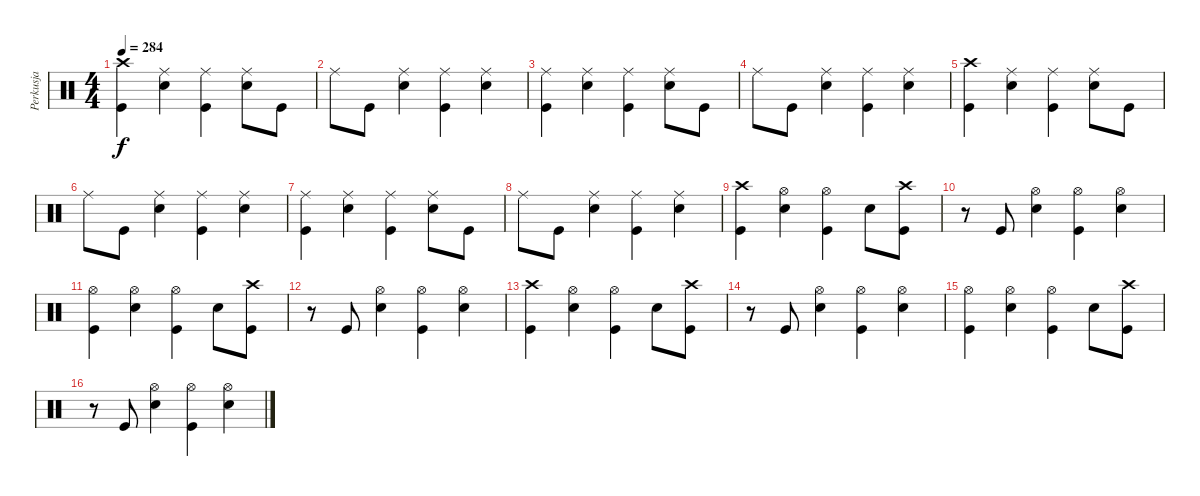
\track ("Perkusja" "Perkusja") {instrument percussion}
\staff {score}
\articulation defaults
\ts (4 4)
\tempo 284
\clef neutral
\ks c
("Kick (hit)" "Crash high (hit)").4{dy f} ("Ride (middle)" "Snare (hit) 2").4 ("Ride (middle)" "Kick (hit)").4 ("Ride (middle)" "Snare (hit) 2").8 "Kick (hit)".8 |
"Ride (middle)".8 "Kick (hit)".8 ("Ride (middle)" "Snare (hit) 2").4 ("Ride (middle)" "Kick (hit)").4 ("Ride (middle)" "Snare (hit) 2").4 |
("Ride (middle)" "Kick (hit)").4 ("Ride (middle)" "Snare (hit) 2").4 ("Ride (middle)" "Kick (hit)").4 ("Ride (middle)" "Snare (hit) 2").8 "Kick (hit)".8 |
"Ride (middle)".8 "Kick (hit)".8 ("Ride (middle)" "Snare (hit) 2").4 ("Ride (middle)" "Kick (hit)").4 ("Ride (middle)" "Snare (hit) 2").4 |
("Kick (hit)" "Crash high (hit)").4 ("Ride (middle)" "Snare (hit) 2").4 ("Ride (middle)" "Kick (hit)").4 ("Ride (middle)" "Snare (hit) 2").8 "Kick (hit)".8 |
"Ride (middle)".8 "Kick (hit)".8 ("Ride (middle)" "Snare (hit) 2").4 ("Ride (middle)" "Kick (hit)").4 ("Ride (middle)" "Snare (hit) 2").4 |
("Ride (middle)" "Kick (hit)").4 ("Ride (middle)" "Snare (hit) 2").4 ("Ride (middle)" "Kick (hit)").4 ("Ride (middle)" "Snare (hit) 2").8 "Kick (hit)".8 |
"Ride (middle)".8 "Kick (hit)".8 ("Ride (middle)" "Snare (hit) 2").4 ("Ride (middle)" "Kick (hit)").4 ("Ride (middle)" "Snare (hit) 2").4 |
("Kick (hit)" "Crash high (hit)").4 ("Hi-Hat (open)" "Snare (hit) 2").4 ("Hi-Hat (open)" "Kick (hit)").4 "Snare (hit) 2".8 ("Kick (hit)" "Crash high (hit)").8 |
r.8 "Kick (hit)".8 ("Hi-Hat (open)" "Snare (hit) 2").4 ("Hi-Hat (open)" "Kick (hit)").4 ("Hi-Hat (open)" "Snare (hit) 2").4 |
("Hi-Hat (open)" "Kick (hit)").4 ("Hi-Hat (open)" "Snare (hit) 2").4 ("Hi-Hat (open)" "Kick (hit)").4 "Snare (hit) 2".8 ("Kick (hit)" "Crash high (hit)").8 |
r.8 "Kick (hit)".8 ("Hi-Hat (open)" "Snare (hit) 2").4 ("Hi-Hat (open)" "Kick (hit)").4 ("Hi-Hat (open)" "Snare (hit) 2").4 |
("Kick (hit)" "Crash high (hit)").4 ("Hi-Hat (open)" "Snare (hit) 2").4 ("Hi-Hat (open)" "Kick (hit)").4 "Snare (hit) 2".8 ("Kick (hit)" "Crash high (hit)").8 |
r.8 "Kick (hit)".8 ("Hi-Hat (open)" "Snare (hit) 2").4 ("Hi-Hat (open)" "Kick (hit)").4 ("Hi-Hat (open)" "Snare (hit) 2").4 |
("Hi-Hat (open)" "Kick (hit)").4 ("Hi-Hat (open)" "Snare (hit) 2").4 ("Hi-Hat (open)" "Kick (hit)").4 "Snare (hit) 2".8 ("Kick (hit)" "Crash high (hit)").8 |
r.8 "Kick (hit)".8 ("Hi-Hat (open)" "Snare (hit) 2").4 ("Hi-Hat (open)" "Kick (hit)").4 ("Hi-Hat (open)" "Snare (hit) 2").4
